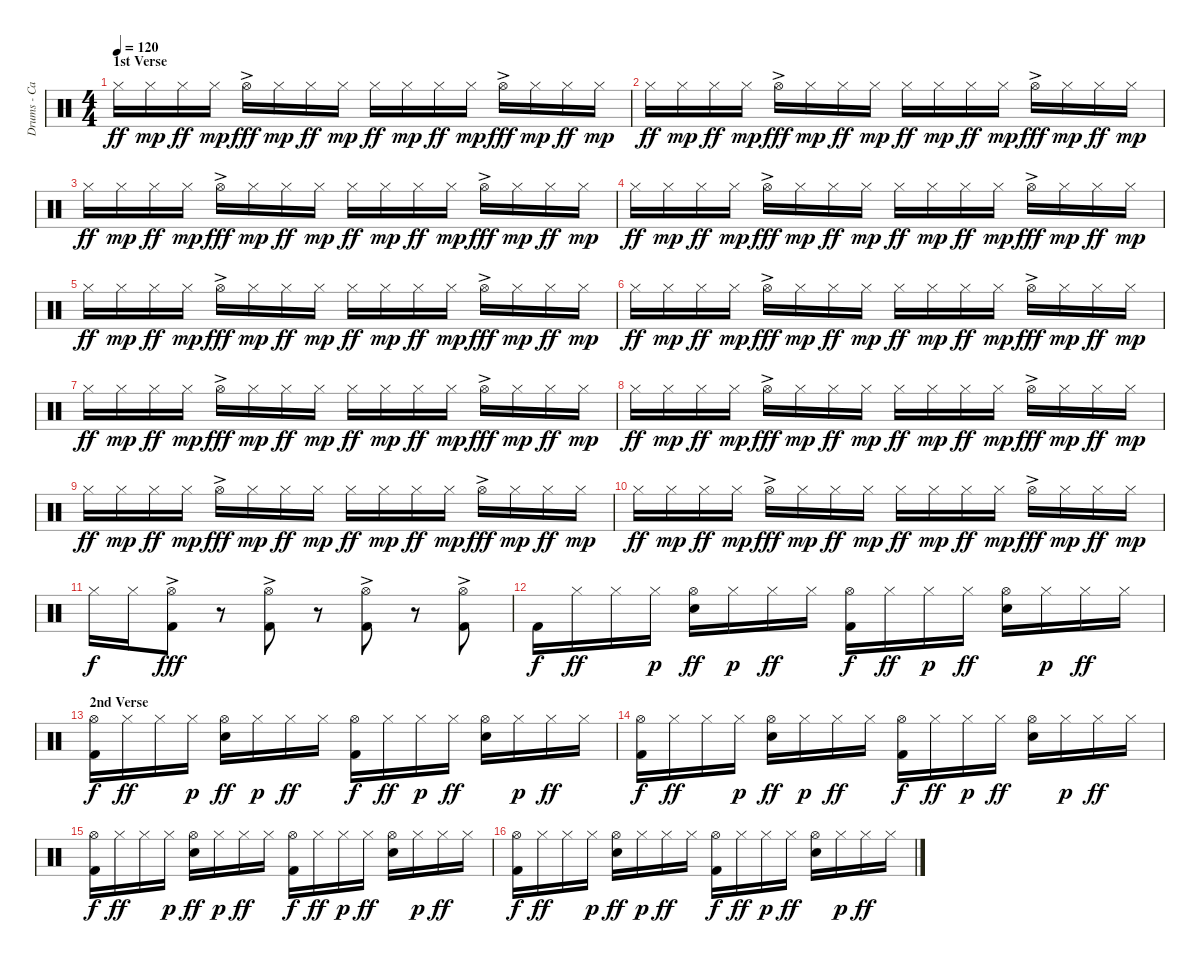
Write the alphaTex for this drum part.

\track ("Drums - Carl Palmer" "Drums - Ca") {instrument percussion}
\staff {score}
\articulation defaults
\ts (4 4)
\section ("" "1st Verse")
\tempo 120
\clef neutral
\ks c "Hi-Hat (closed)".16{dy ff} "Hi-Hat (closed)".16{dy mp} "Hi-Hat (closed)".16{dy ff} "Hi-Hat (closed)".16{dy mp} "Hi-Hat (open)"{ac}.16{dy fff} "Hi-Hat (closed)".16{dy mp} "Hi-Hat (closed)".16{dy ff} "Hi-Hat (closed)".16{dy mp} "Hi-Hat (closed)".16{dy ff} "Hi-Hat (closed)".16{dy mp} "Hi-Hat (closed)".16{dy ff} "Hi-Hat (closed)".16{dy mp} "Hi-Hat (open)"{ac}.16{dy fff} "Hi-Hat (closed)".16{dy mp} "Hi-Hat (closed)".16{dy ff} "Hi-Hat (closed)".16{dy mp}
|
"Hi-Hat (closed)".16{dy ff} "Hi-Hat (closed)".16{dy mp} "Hi-Hat (closed)".16{dy ff} "Hi-Hat (closed)".16{dy mp} "Hi-Hat (open)"{ac}.16{dy fff} "Hi-Hat (closed)".16{dy mp} "Hi-Hat (closed)".16{dy ff} "Hi-Hat (closed)".16{dy mp} "Hi-Hat (closed)".16{dy ff} "Hi-Hat (closed)".16{dy mp} "Hi-Hat (closed)".16{dy ff} "Hi-Hat (closed)".16{dy mp} "Hi-Hat (open)"{ac}.16{dy fff} "Hi-Hat (closed)".16{dy mp} "Hi-Hat (closed)".16{dy ff} "Hi-Hat (closed)".16{dy mp} |
"Hi-Hat (closed)".16{dy ff} "Hi-Hat (closed)".16{dy mp} "Hi-Hat (closed)".16{dy ff} "Hi-Hat (closed)".16{dy mp} "Hi-Hat (open)"{ac}.16{dy fff} "Hi-Hat (closed)".16{dy mp} "Hi-Hat (closed)".16{dy ff} "Hi-Hat (closed)".16{dy mp} "Hi-Hat (closed)".16{dy ff} "Hi-Hat (closed)".16{dy mp} "Hi-Hat (closed)".16{dy ff} "Hi-Hat (closed)".16{dy mp} "Hi-Hat (open)"{ac}.16{dy fff} "Hi-Hat (closed)".16{dy mp} "Hi-Hat (closed)".16{dy ff} "Hi-Hat (closed)".16{dy mp} |
"Hi-Hat (closed)".16{dy ff} "Hi-Hat (closed)".16{dy mp} "Hi-Hat (closed)".16{dy ff} "Hi-Hat (closed)".16{dy mp} "Hi-Hat (open)"{ac}.16{dy fff} "Hi-Hat (closed)".16{dy mp} "Hi-Hat (closed)".16{dy ff} "Hi-Hat (closed)".16{dy mp} "Hi-Hat (closed)".16{dy ff} "Hi-Hat (closed)".16{dy mp} "Hi-Hat (closed)".16{dy ff} "Hi-Hat (closed)".16{dy mp} "Hi-Hat (open)"{ac}.16{dy fff} "Hi-Hat (closed)".16{dy mp} "Hi-Hat (closed)".16{dy ff} "Hi-Hat (closed)".16{dy mp} |
"Hi-Hat (closed)".16{dy ff} "Hi-Hat (closed)".16{dy mp} "Hi-Hat (closed)".16{dy ff} "Hi-Hat (closed)".16{dy mp} "Hi-Hat (open)"{ac}.16{dy fff} "Hi-Hat (closed)".16{dy mp} "Hi-Hat (closed)".16{dy ff} "Hi-Hat (closed)".16{dy mp} "Hi-Hat (closed)".16{dy ff} "Hi-Hat (closed)".16{dy mp} "Hi-Hat (closed)".16{dy ff} "Hi-Hat (closed)".16{dy mp} "Hi-Hat (open)"{ac}.16{dy fff} "Hi-Hat (closed)".16{dy mp} "Hi-Hat (closed)".16{dy ff} "Hi-Hat (closed)".16{dy mp} |
"Hi-Hat (closed)".16{dy ff} "Hi-Hat (closed)".16{dy mp} "Hi-Hat (closed)".16{dy ff} "Hi-Hat (closed)".16{dy mp} "Hi-Hat (open)"{ac}.16{dy fff} "Hi-Hat (closed)".16{dy mp} "Hi-Hat (closed)".16{dy ff} "Hi-Hat (closed)".16{dy mp} "Hi-Hat (closed)".16{dy ff} "Hi-Hat (closed)".16{dy mp} "Hi-Hat (closed)".16{dy ff} "Hi-Hat (closed)".16{dy mp} "Hi-Hat (open)"{ac}.16{dy fff} "Hi-Hat (closed)".16{dy mp} "Hi-Hat (closed)".16{dy ff} "Hi-Hat (closed)".16{dy mp} |
"Hi-Hat (closed)".16{dy ff} "Hi-Hat (closed)".16{dy mp} "Hi-Hat (closed)".16{dy ff} "Hi-Hat (closed)".16{dy mp} "Hi-Hat (open)"{ac}.16{dy fff} "Hi-Hat (closed)".16{dy mp} "Hi-Hat (closed)".16{dy ff} "Hi-Hat (closed)".16{dy mp} "Hi-Hat (closed)".16{dy ff} "Hi-Hat (closed)".16{dy mp} "Hi-Hat (closed)".16{dy ff} "Hi-Hat (closed)".16{dy mp} "Hi-Hat (open)"{ac}.16{dy fff} "Hi-Hat (closed)".16{dy mp} "Hi-Hat (closed)".16{dy ff} "Hi-Hat (closed)".16{dy mp} |
"Hi-Hat (closed)".16{dy ff} "Hi-Hat (closed)".16{dy mp} "Hi-Hat (closed)".16{dy ff} "Hi-Hat (closed)".16{dy mp} "Hi-Hat (open)"{ac}.16{dy fff} "Hi-Hat (closed)".16{dy mp} "Hi-Hat (closed)".16{dy ff} "Hi-Hat (closed)".16{dy mp} "Hi-Hat (closed)".16{dy ff} "Hi-Hat (closed)".16{dy mp} "Hi-Hat (closed)".16{dy ff} "Hi-Hat (closed)".16{dy mp} "Hi-Hat (open)"{ac}.16{dy fff} "Hi-Hat (closed)".16{dy mp} "Hi-Hat (closed)".16{dy ff} "Hi-Hat (closed)".16{dy mp} |
"Hi-Hat (closed)".16{dy ff} "Hi-Hat (closed)".16{dy mp} "Hi-Hat (closed)".16{dy ff} "Hi-Hat (closed)".16{dy mp} "Hi-Hat (open)"{ac}.16{dy fff} "Hi-Hat (closed)".16{dy mp} "Hi-Hat (closed)".16{dy ff} "Hi-Hat (closed)".16{dy mp} "Hi-Hat (closed)".16{dy ff} "Hi-Hat (closed)".16{dy mp} "Hi-Hat (closed)".16{dy ff} "Hi-Hat (closed)".16{dy mp} "Hi-Hat (open)"{ac}.16{dy fff} "Hi-Hat (closed)".16{dy mp} "Hi-Hat (closed)".16{dy ff} "Hi-Hat (closed)".16{dy mp} |
"Hi-Hat (closed)".16{dy ff} "Hi-Hat (closed)".16{dy mp} "Hi-Hat (closed)".16{dy ff} "Hi-Hat (closed)".16{dy mp} "Hi-Hat (open)"{ac}.16{dy fff} "Hi-Hat (closed)".16{dy mp} "Hi-Hat (closed)".16{dy ff} "Hi-Hat (closed)".16{dy mp} "Hi-Hat (closed)".16{dy ff} "Hi-Hat (closed)".16{dy mp} "Hi-Hat (closed)".16{dy ff} "Hi-Hat (closed)".16{dy mp} "Hi-Hat (open)"{ac}.16{dy fff} "Hi-Hat (closed)".16{dy mp} "Hi-Hat (closed)".16{dy ff} "Hi-Hat (closed)".16{dy mp} |
"Hi-Hat (closed)".16{dy f} "Hi-Hat (closed)".16 ("Hi-Hat (open)"{ac} "Kick (hit) 2").8{dy fff} r.8 ("Hi-Hat (open)"{ac} "Kick (hit) 2").8 r.8 ("Hi-Hat (open)"{ac} "Kick (hit) 2").8 r.8 ("Hi-Hat (open)"{ac} "Kick (hit) 2").8 |
"Kick (hit) 2".16{dy f} "Hi-Hat (closed)".16{dy ff} "Hi-Hat (closed)".16 "Hi-Hat (closed)".16{dy p} ("Hi-Hat (open)" "Snare (hit) 2").16{dy ff} "Hi-Hat (closed)".16{dy p} "Hi-Hat (closed)".16{dy ff} "Hi-Hat (closed)".16 ("Hi-Hat (open)" "Kick (hit) 2").16{dy f} "Hi-Hat (closed)".16{dy ff} "Hi-Hat (closed)".16{dy p} "Hi-Hat (closed)".16{dy ff} ("Hi-Hat (open)" "Snare (hit) 2").16 "Hi-Hat (closed)".16{dy p} "Hi-Hat (closed)".16{dy ff} "Hi-Hat (closed)".16 |
\section ("" "2nd Verse")
("Hi-Hat (open)" "Kick (hit) 2").16{dy f} "Hi-Hat (closed)".16{dy ff} "Hi-Hat (closed)".16 "Hi-Hat (closed)".16{dy p} ("Hi-Hat (open)" "Snare (hit) 2").16{dy ff} "Hi-Hat (closed)".16{dy p} "Hi-Hat (closed)".16{dy ff} "Hi-Hat (closed)".16 ("Hi-Hat (open)" "Kick (hit) 2").16{dy f} "Hi-Hat (closed)".16{dy ff} "Hi-Hat (closed)".16{dy p} "Hi-Hat (closed)".16{dy ff} ("Hi-Hat (open)" "Snare (hit) 2").16 "Hi-Hat (closed)".16{dy p} "Hi-Hat (closed)".16{dy ff} "Hi-Hat (closed)".16 |
("Hi-Hat (open)" "Kick (hit) 2").16{dy f} "Hi-Hat (closed)".16{dy ff} "Hi-Hat (closed)".16 "Hi-Hat (closed)".16{dy p} ("Hi-Hat (open)" "Snare (hit) 2").16{dy ff} "Hi-Hat (closed)".16{dy p} "Hi-Hat (closed)".16{dy ff} "Hi-Hat (closed)".16 ("Hi-Hat (open)" "Kick (hit) 2").16{dy f} "Hi-Hat (closed)".16{dy ff} "Hi-Hat (closed)".16{dy p} "Hi-Hat (closed)".16{dy ff} ("Hi-Hat (open)" "Snare (hit) 2").16 "Hi-Hat (closed)".16{dy p} "Hi-Hat (closed)".16{dy ff} "Hi-Hat (closed)".16 |
("Hi-Hat (open)" "Kick (hit) 2").16{dy f} "Hi-Hat (closed)".16{dy ff} "Hi-Hat (closed)".16 "Hi-Hat (closed)".16{dy p} ("Hi-Hat (open)" "Snare (hit) 2").16{dy ff} "Hi-Hat (closed)".16{dy p} "Hi-Hat (closed)".16{dy ff} "Hi-Hat (closed)".16 ("Hi-Hat (open)" "Kick (hit) 2").16{dy f} "Hi-Hat (closed)".16{dy ff} "Hi-Hat (closed)".16{dy p} "Hi-Hat (closed)".16{dy ff} ("Hi-Hat (open)" "Snare (hit) 2").16 "Hi-Hat (closed)".16{dy p} "Hi-Hat (closed)".16{dy ff} "Hi-Hat (closed)".16 |
("Hi-Hat (open)" "Kick (hit) 2").16{dy f} "Hi-Hat (closed)".16{dy ff} "Hi-Hat (closed)".16 "Hi-Hat (closed)".16{dy p} ("Hi-Hat (open)" "Snare (hit) 2").16{dy ff} "Hi-Hat (closed)".16{dy p} "Hi-Hat (closed)".16{dy ff} "Hi-Hat (closed)".16 ("Hi-Hat (open)" "Kick (hit) 2").16{dy f} "Hi-Hat (closed)".16{dy ff} "Hi-Hat (closed)".16{dy p} "Hi-Hat (closed)".16{dy ff} ("Hi-Hat (open)" "Snare (hit) 2").16 "Hi-Hat (closed)".16{dy p} "Hi-Hat (closed)".16{dy ff} "Hi-Hat (closed)".16
